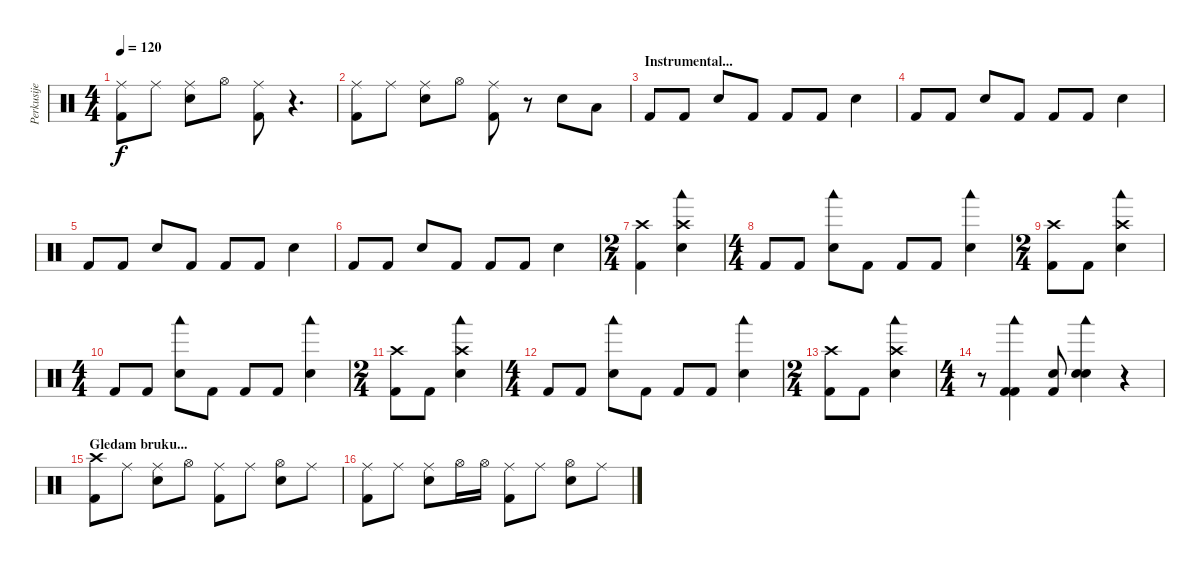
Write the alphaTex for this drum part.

\track ("Perkusije" "Perkusije") {instrument percussion}
\staff {score}
\articulation defaults
\ts (4 4)
\tempo 120
\clef neutral
\ks c
("Ride (middle)" "Kick (hit) 2").8{dy f} "Ride (middle)".8 ("Ride (middle)" "Electric Snare (hit)").8 "Hi-Hat (open)".8 ("Ride (middle)" "Kick (hit) 2").8 r.4{d} |
("Ride (middle)" "Kick (hit) 2").8 "Ride (middle)".8 ("Ride (middle)" "Electric Snare (hit)").8 "Hi-Hat (open)".8 ("Ride (middle)" "Kick (hit) 2").8 r.8 "Electric Snare (hit)".8 "Low Floor Tom (hit)".8 |
\section ("" "Instrumental...")
"Kick (hit) 2".8 "Kick (hit) 2".8 "Electric Snare (hit)".8 "Kick (hit) 2".8 "Kick (hit) 2".8 "Kick (hit) 2".8 "Electric Snare (hit)".4 |
"Kick (hit) 2".8 "Kick (hit) 2".8 "Electric Snare (hit)".8 "Kick (hit) 2".8 "Kick (hit) 2".8 "Kick (hit) 2".8 "Electric Snare (hit)".4 |
"Kick (hit) 2".8 "Kick (hit) 2".8 "Electric Snare (hit)".8 "Kick (hit) 2".8 "Kick (hit) 2".8 "Kick (hit) 2".8 "Electric Snare (hit)".4 |
"Kick (hit) 2".8 "Kick (hit) 2".8 "Electric Snare (hit)".8 "Kick (hit) 2".8 "Kick (hit) 2".8 "Kick (hit) 2".8 "Electric Snare (hit)".4 |
\ts (2 4)
("Crash high (hit)" "Kick (hit) 2").4 ("Crash high (hit)" "Electric Snare (hit)" "Woodblock low (hit)").4 |
\ts (4 4)
"Kick (hit) 2".8 "Kick (hit) 2".8 ("Electric Snare (hit)" "Woodblock low (hit)").8 "Kick (hit) 2".8 "Kick (hit) 2".8 "Kick (hit) 2".8 ("Electric Snare (hit)" "Woodblock low (hit)").4 |
\ts (2 4)
("Crash high (hit)" "Kick (hit) 2").8 "Kick (hit) 2".8 ("Crash high (hit)" "Electric Snare (hit)" "Woodblock low (hit)").4 |
\ts (4 4)
"Kick (hit) 2".8 "Kick (hit) 2".8 ("Electric Snare (hit)" "Woodblock low (hit)").8 "Kick (hit) 2".8 "Kick (hit) 2".8 "Kick (hit) 2".8 ("Electric Snare (hit)" "Woodblock low (hit)").4 |
\ts (2 4)
("Crash high (hit)" "Kick (hit) 2").8 "Kick (hit) 2".8 ("Crash high (hit)" "Electric Snare (hit)" "Woodblock low (hit)").4 |
\ts (4 4)
"Kick (hit) 2".8 "Kick (hit) 2".8 ("Electric Snare (hit)" "Woodblock low (hit)").8 "Kick (hit) 2".8 "Kick (hit) 2".8 "Kick (hit) 2".8 ("Electric Snare (hit)" "Woodblock low (hit)").4 |
\ts (2 4)
("Crash high (hit)" "Kick (hit) 2").8 "Kick (hit) 2".8 ("Crash high (hit)" "Electric Snare (hit)" "Woodblock low (hit)").4 |
\ts (4 4)
r.8 ("Kick (hit) 2" "Kick (hit) 2" "Woodblock low (hit)").4 ("Kick (hit) 2" "Electric Snare (hit)").8 ("Electric Snare (hit)" "Electric Snare (hit)" "Woodblock low (hit)").4 r.4 |
\section ("" "Gledam bruku...")
("Crash high (hit)" "Kick (hit) 2").8 "Ride (middle)".8 ("Ride (middle)" "Electric Snare (hit)").8 "Hi-Hat (open)".8 ("Ride (middle)" "Kick (hit) 2").8 "Ride (middle)".8 ("Hi-Hat (open)" "Electric Snare (hit)").8 "Ride (middle)".8 |
("Ride (middle)" "Kick (hit) 2").8 "Ride (middle)".8 ("Ride (middle)" "Electric Snare (hit)").8 "Hi-Hat (open)".16 "Hi-Hat (open)".16 ("Ride (middle)" "Kick (hit) 2").8 "Ride (middle)".8 ("Hi-Hat (open)" "Electric Snare (hit)").8 "Ride (middle)".8
